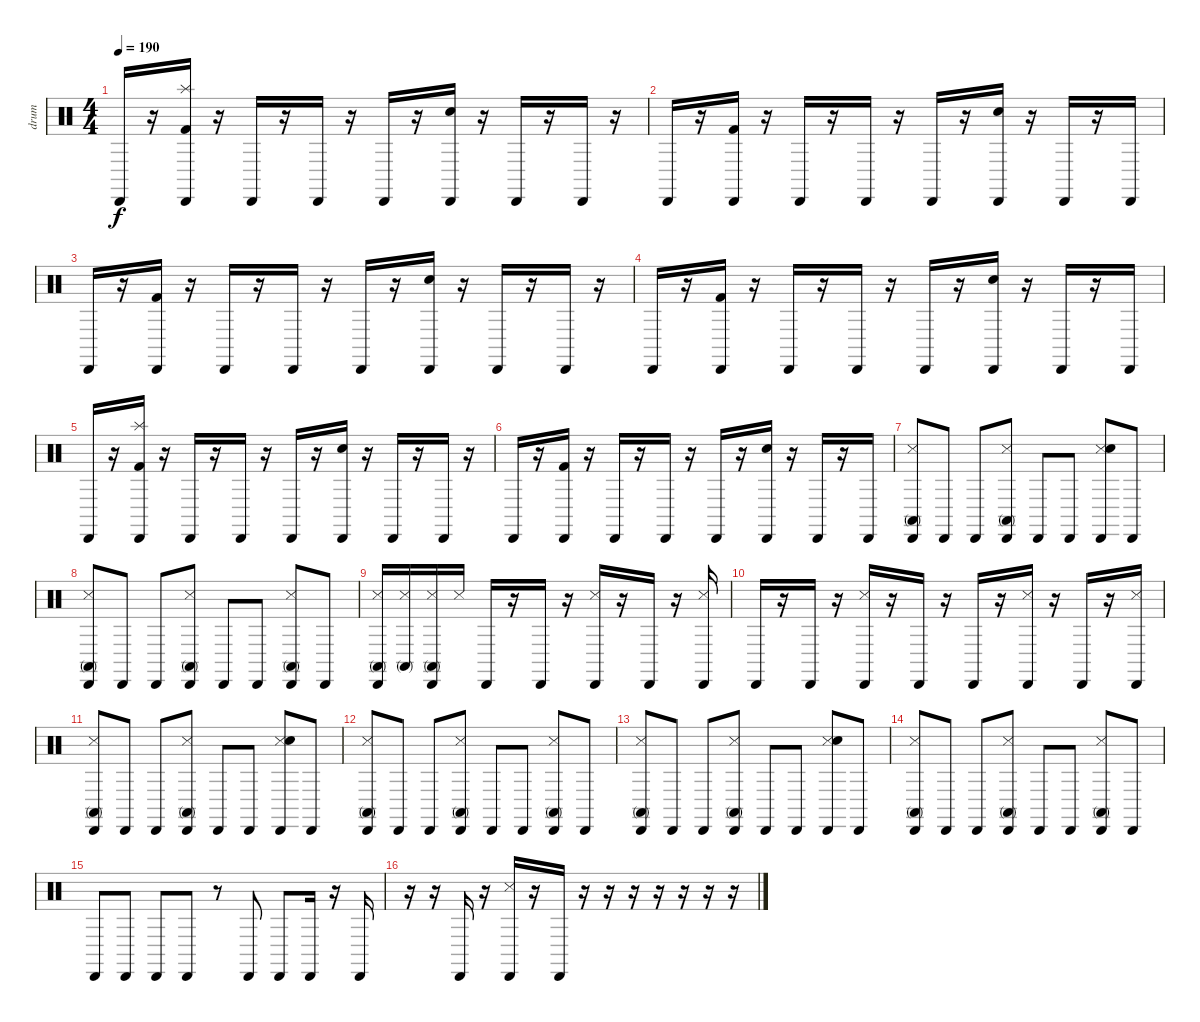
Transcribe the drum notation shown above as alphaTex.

\track ("drum" "drum") {instrument percussion}
\staff {score}
\articulation defaults
\ts (4 4)
\tempo 190
\clef neutral
\ks c "Cabasa (hit)".16{dy f}
r.16 ("Cabasa (hit)" "Kick (hit) 2" "Splash (hit)").16 r.16 "Cabasa (hit)".16 r.16 "Cabasa (hit)".16 r.16 "Cabasa (hit)".16 r.16 ("Cabasa (hit)" "Snare (hit) 2").16 r.16 "Cabasa (hit)".16 r.16 "Cabasa (hit)".16 r.16 |
"Cabasa (hit)".16 r.16 ("Cabasa (hit)" "Kick (hit) 2").16 r.16 "Cabasa (hit)".16 r.16 "Cabasa (hit)".16 r.16 "Cabasa (hit)".16 r.16 ("Cabasa (hit)" "Snare (hit) 2").16 r.16 "Cabasa (hit)".16 r.16 "Cabasa (hit)".16 |
"Cabasa (hit)".16 r.16 ("Cabasa (hit)" "Kick (hit) 2").16 r.16 "Cabasa (hit)".16 r.16 "Cabasa (hit)".16 r.16 "Cabasa (hit)".16 r.16 ("Cabasa (hit)" "Snare (hit) 2").16 r.16 "Cabasa (hit)".16 r.16 "Cabasa (hit)".16 r.16 |
"Cabasa (hit)".16 r.16 ("Cabasa (hit)" "Kick (hit) 2").16 r.16 "Cabasa (hit)".16 r.16 "Cabasa (hit)".16 r.16 "Cabasa (hit)".16 r.16 ("Cabasa (hit)" "Snare (hit) 2").16 r.16 "Cabasa (hit)".16 r.16 "Cabasa (hit)".16 |
"Cabasa (hit)".16 r.16 ("Cabasa (hit)" "Kick (hit) 2" "Splash (hit)").16 r.16 "Cabasa (hit)".16 r.16 "Cabasa (hit)".16 r.16 "Cabasa (hit)".16 r.16 ("Cabasa (hit)" "Snare (hit) 2").16 r.16 "Cabasa (hit)".16 r.16 "Cabasa (hit)".16 r.16 |
"Cabasa (hit)".16 r.16 ("Cabasa (hit)" "Kick (hit) 2").16 r.16 "Cabasa (hit)".16 r.16 "Cabasa (hit)".16 r.16 "Cabasa (hit)".16 r.16 ("Cabasa (hit)" "Snare (hit) 2").16 r.16 "Cabasa (hit)".16 r.16 "Cabasa (hit)".16 |
("Cabasa (hit)" "Conga high (mute)" "Snare (side stick) 3").8 "Cabasa (hit)".8 "Cabasa (hit)".8 ("Cabasa (hit)" "Snare (side stick) 3" "Conga high (mute)").8 "Cabasa (hit)".8 "Cabasa (hit)".8 ("Cabasa (hit)" "Snare (side stick) 3" "Snare (hit)").8 "Cabasa (hit)".8 |
("Cabasa (hit)" "Snare (side stick) 3" "Conga high (mute)").8 "Cabasa (hit)".8 "Cabasa (hit)".8 ("Cabasa (hit)" "Conga high (mute)" "Snare (side stick) 3").8 "Cabasa (hit)".8 "Cabasa (hit)".8 ("Cabasa (hit)" "Conga high (mute)" "Snare (side stick) 3").8 "Cabasa (hit)".8 |
("Cabasa (hit)" "Conga high (mute)" "Snare (side stick) 3").16 ("Conga high (mute)" "Snare (side stick) 3").16 ("Cabasa (hit)" "Conga high (mute)" "Snare (side stick) 3").16 "Snare (side stick) 3".16 "Cabasa (hit)".16 r.16 "Cabasa (hit)".16 r.16 ("Cabasa (hit)" "Snare (side stick) 3").16 r.16 "Cabasa (hit)".16 r.16 ("Cabasa (hit)" "Snare (side stick) 3").16 |
"Cabasa (hit)".16 r.16 "Cabasa (hit)".16 r.16 ("Cabasa (hit)" "Snare (side stick) 3").16 r.16 "Cabasa (hit)".16 r.16 "Cabasa (hit)".16 r.16 ("Cabasa (hit)" "Snare (side stick) 3").16 r.16 "Cabasa (hit)".16 r.16 ("Cabasa (hit)" "Snare (side stick) 3").16 |
("Cabasa (hit)" "Conga high (mute)" "Snare (side stick) 3").8 "Cabasa (hit)".8 "Cabasa (hit)".8 ("Cabasa (hit)" "Snare (side stick) 3" "Conga high (mute)").8 "Cabasa (hit)".8 "Cabasa (hit)".8 ("Cabasa (hit)" "Snare (side stick) 3" "Snare (hit)").8 "Cabasa (hit)".8 |
("Cabasa (hit)" "Snare (side stick) 3" "Conga high (mute)").8 "Cabasa (hit)".8 "Cabasa (hit)".8 ("Cabasa (hit)" "Conga high (mute)" "Snare (side stick) 3").8 "Cabasa (hit)".8 "Cabasa (hit)".8 ("Cabasa (hit)" "Conga high (mute)" "Snare (side stick) 3").8 "Cabasa (hit)".8 |
("Cabasa (hit)" "Conga high (mute)" "Snare (side stick) 3").8 "Cabasa (hit)".8 "Cabasa (hit)".8 ("Cabasa (hit)" "Snare (side stick) 3" "Conga high (mute)").8 "Cabasa (hit)".8 "Cabasa (hit)".8 ("Cabasa (hit)" "Snare (side stick) 3" "Snare (hit)").8 "Cabasa (hit)".8 |
("Cabasa (hit)" "Snare (side stick) 3" "Conga high (mute)").8 "Cabasa (hit)".8 "Cabasa (hit)".8 ("Cabasa (hit)" "Conga high (mute)" "Snare (side stick) 3").8 "Cabasa (hit)".8 "Cabasa (hit)".8 ("Cabasa (hit)" "Conga high (mute)" "Snare (side stick) 3").8 "Cabasa (hit)".8 |
"Cabasa (hit)".8 "Cabasa (hit)".8 "Cabasa (hit)".8 "Cabasa (hit)".8 r.8 "Cabasa (hit)".8 "Cabasa (hit)".8 "Cabasa (hit)".16 r.16 "Cabasa (hit)".16 |
r.16 r.16 "Cabasa (hit)".16 r.16 ("Cabasa (hit)" "Snare (side stick) 3").16 r.16 "Cabasa (hit)".16 r.16 r.16 r.16 r.16 r.16 r.16 r.16
